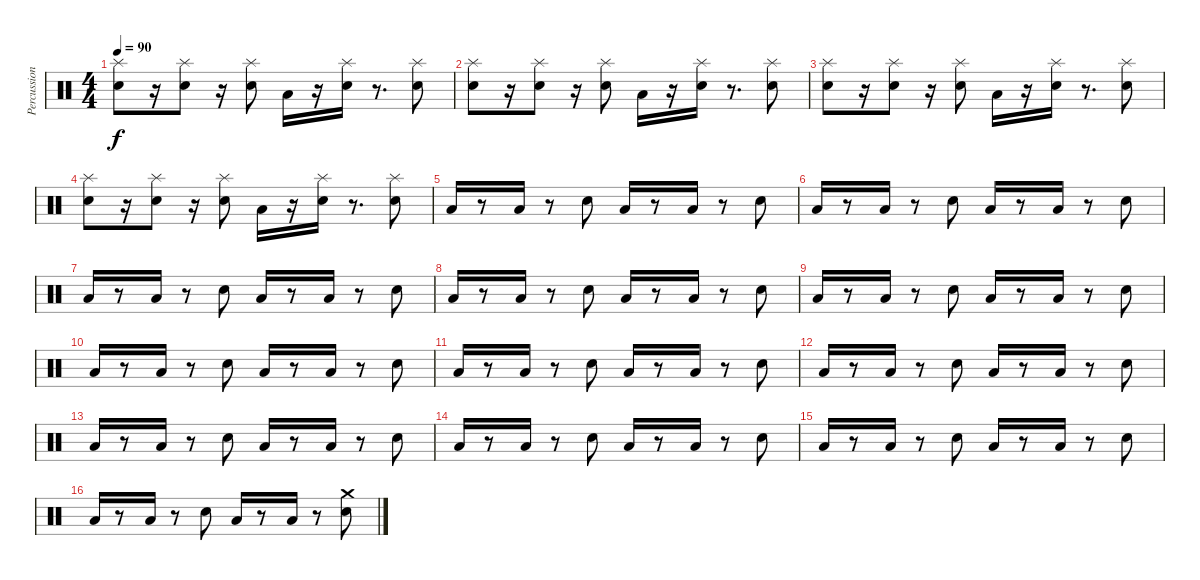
\track ("Percussions" "Percussion") {instrument percussion}
\staff {score}
\articulation defaults
\ts (4 4)
\tempo 90
\clef neutral
\ks c
("Snare (hit) 2" "Splash (hit)").8{dy f} r.16 ("Snare (hit) 2" "Splash (hit)").8 r.16 ("Snare (hit) 2" "Splash (hit)").8 "Low Floor Tom (hit)".16 r.16 ("Snare (hit) 2" "Splash (hit)").16 r.8{d} ("Snare (hit) 2" "Splash (hit)").8 |
("Snare (hit) 2" "Splash (hit)").8 r.16 ("Snare (hit) 2" "Splash (hit)").8 r.16 ("Snare (hit) 2" "Splash (hit)").8 "Low Floor Tom (hit)".16 r.16 ("Snare (hit) 2" "Splash (hit)").16 r.8{d} ("Snare (hit) 2" "Splash (hit)").8 |
("Snare (hit) 2" "Splash (hit)").8 r.16 ("Snare (hit) 2" "Splash (hit)").8 r.16 ("Snare (hit) 2" "Splash (hit)").8 "Low Floor Tom (hit)".16 r.16 ("Snare (hit) 2" "Splash (hit)").16 r.8{d} ("Snare (hit) 2" "Splash (hit)").8 |
("Snare (hit) 2" "Splash (hit)").8 r.16 ("Snare (hit) 2" "Splash (hit)").8 r.16 ("Snare (hit) 2" "Splash (hit)").8 "Low Floor Tom (hit)".16 r.16 ("Snare (hit) 2" "Splash (hit)").16 r.8{d} ("Snare (hit) 2" "Splash (hit)").8 |
"Low Floor Tom (hit)".16 r.8 "Low Floor Tom (hit)".16 r.8 "Snare (hit) 2".8 "Low Floor Tom (hit)".16 r.8 "Low Floor Tom (hit)".16 r.8 "Snare (hit) 2".8 |
"Low Floor Tom (hit)".16 r.8 "Low Floor Tom (hit)".16 r.8 "Snare (hit) 2".8 "Low Floor Tom (hit)".16 r.8 "Low Floor Tom (hit)".16 r.8 "Snare (hit) 2".8 |
"Low Floor Tom (hit)".16 r.8 "Low Floor Tom (hit)".16 r.8 "Snare (hit) 2".8 "Low Floor Tom (hit)".16 r.8 "Low Floor Tom (hit)".16 r.8 "Snare (hit) 2".8 |
"Low Floor Tom (hit)".16 r.8 "Low Floor Tom (hit)".16 r.8 "Snare (hit) 2".8 "Low Floor Tom (hit)".16 r.8 "Low Floor Tom (hit)".16 r.8 "Snare (hit) 2".8 |
"Low Floor Tom (hit)".16 r.8 "Low Floor Tom (hit)".16 r.8 "Snare (hit) 2".8 "Low Floor Tom (hit)".16 r.8 "Low Floor Tom (hit)".16 r.8 "Snare (hit) 2".8 |
"Low Floor Tom (hit)".16 r.8 "Low Floor Tom (hit)".16 r.8 "Snare (hit) 2".8 "Low Floor Tom (hit)".16 r.8 "Low Floor Tom (hit)".16 r.8 "Snare (hit) 2".8 |
"Low Floor Tom (hit)".16 r.8 "Low Floor Tom (hit)".16 r.8 "Snare (hit) 2".8 "Low Floor Tom (hit)".16 r.8 "Low Floor Tom (hit)".16 r.8 "Snare (hit) 2".8 |
"Low Floor Tom (hit)".16 r.8 "Low Floor Tom (hit)".16 r.8 "Snare (hit) 2".8 "Low Floor Tom (hit)".16 r.8 "Low Floor Tom (hit)".16 r.8 "Snare (hit) 2".8 |
"Low Floor Tom (hit)".16 r.8 "Low Floor Tom (hit)".16 r.8 "Snare (hit) 2".8 "Low Floor Tom (hit)".16 r.8 "Low Floor Tom (hit)".16 r.8 "Snare (hit) 2".8 |
"Low Floor Tom (hit)".16 r.8 "Low Floor Tom (hit)".16 r.8 "Snare (hit) 2".8 "Low Floor Tom (hit)".16 r.8 "Low Floor Tom (hit)".16 r.8 "Snare (hit) 2".8 |
"Low Floor Tom (hit)".16 r.8 "Low Floor Tom (hit)".16 r.8 "Snare (hit) 2".8 "Low Floor Tom (hit)".16 r.8 "Low Floor Tom (hit)".16 r.8 "Snare (hit) 2".8 |
"Low Floor Tom (hit)".16 r.8 "Low Floor Tom (hit)".16 r.8 "Snare (hit) 2".8 "Low Floor Tom (hit)".16 r.8 "Low Floor Tom (hit)".16 r.8 ("Snare (hit) 2" "Crash medium (hit)").8
